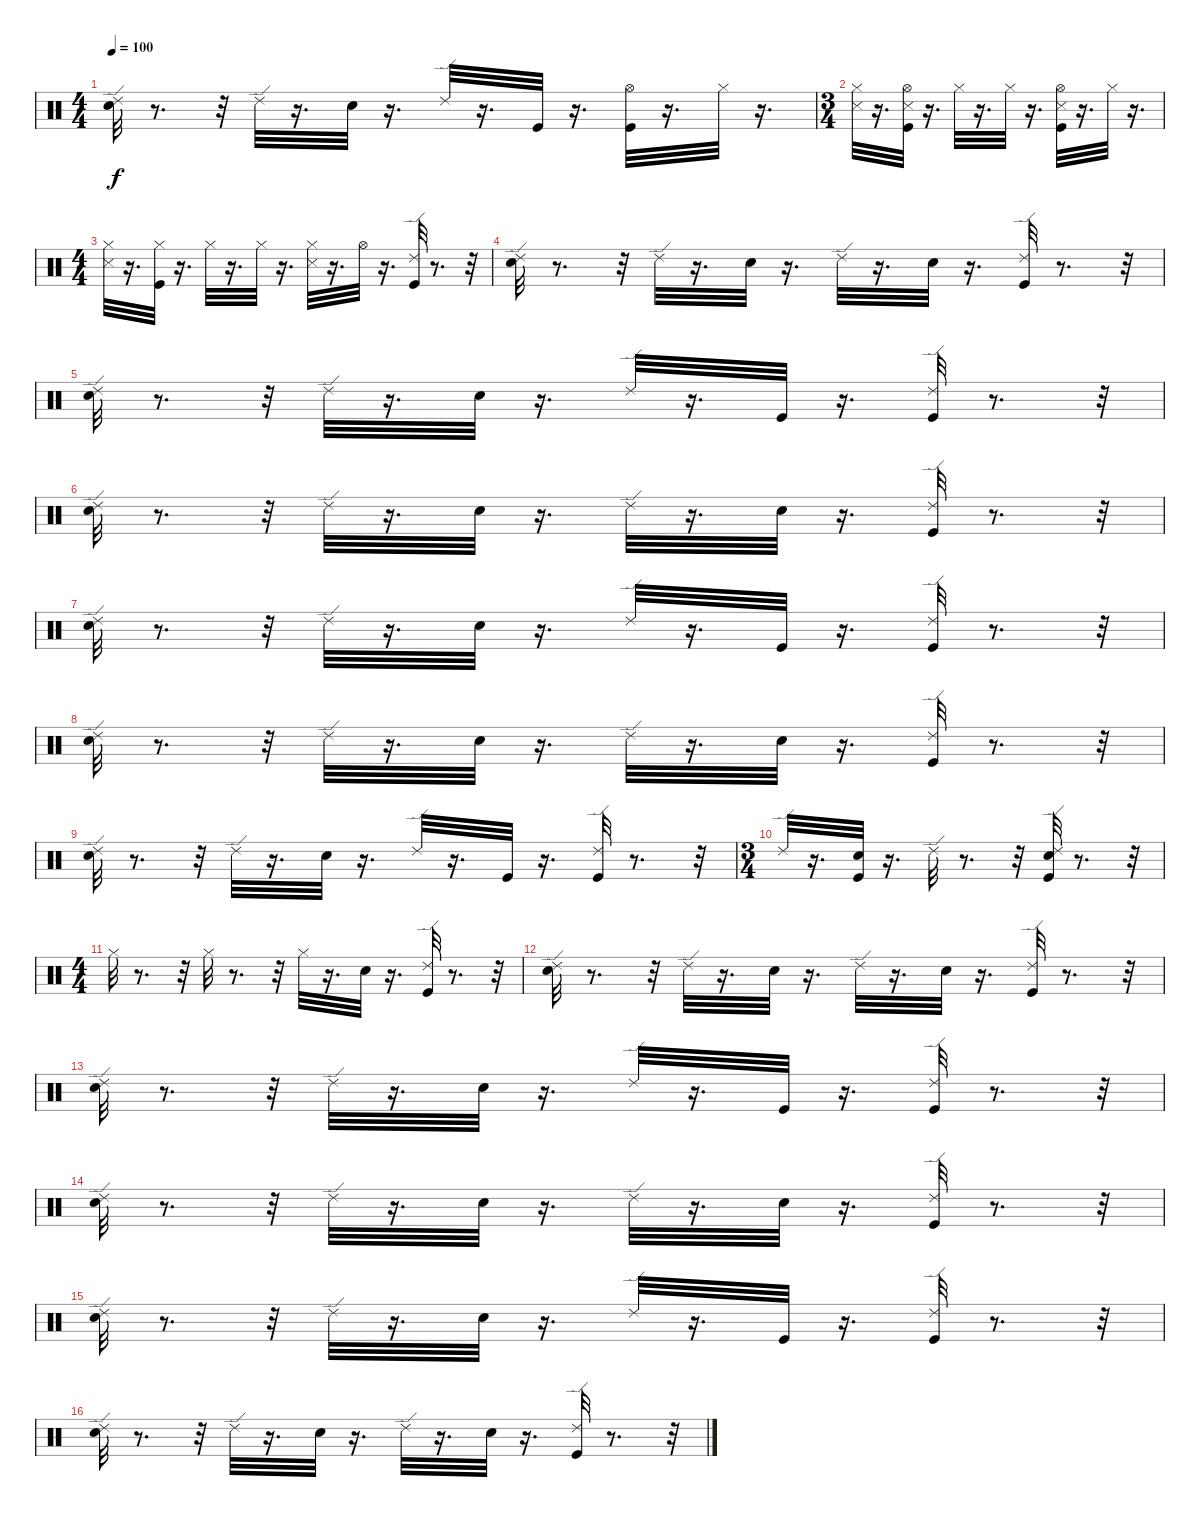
\track "" {instrument percussion}
\staff {score}
\articulation defaults
\ts (4 4)
\tempo 100
\clef neutral
\ks c
("Ride (edge) 2" "Snare (hit) 2").32{dy f} r.8{d} r.32 "Ride (edge) 2".32 r.16{d} "Snare (hit) 2".32 r.16{d} "Ride (edge) 2".32 r.16{d} "Kick (hit)".32 r.16{d} ("Kick (hit)" "Hi-Hat (open)").32 r.16{d} "Hi-Hat (closed)".32 r.16{d} |
\ts (3 4)
("Snare (side stick) 3" "Hi-Hat (closed)").32 r.16{d} ("Snare (side stick) 3" "Kick (hit)" "Hi-Hat (open)").32 r.16{d} "Hi-Hat (closed)".32 r.16{d} "Hi-Hat (closed)".32 r.16{d} ("Snare (side stick) 3" "Kick (hit)" "Hi-Hat (open)").32 r.16{d} "Hi-Hat (closed)".32 r.16{d} |
\ts (4 4)
("Snare (side stick) 3" "Hi-Hat (closed)").32 r.16{d} ("Kick (hit)" "Hi-Hat (closed)").32 r.16{d} "Hi-Hat (closed)".32 r.16{d} "Hi-Hat (closed)".32 r.16{d} ("Snare (side stick) 3" "Hi-Hat (closed)").32 r.16{d} "Hi-Hat (open)".32 r.16{d} ("Ride (edge) 2" "Kick (hit)").32 r.8{d} r.32 |
("Snare (hit) 2" "Ride (edge) 2").32 r.8{d} r.32 "Ride (edge) 2".32 r.16{d} "Snare (hit) 2".32 r.16{d} "Ride (edge) 2".32 r.16{d} "Snare (hit) 2".32 r.16{d} ("Kick (hit)" "Ride (edge) 2").32 r.8{d} r.32 |
("Ride (edge) 2" "Snare (hit) 2").32 r.8{d} r.32 "Ride (edge) 2".32 r.16{d} "Snare (hit) 2".32 r.16{d} "Ride (edge) 2".32 r.16{d} "Kick (hit)".32 r.16{d} ("Kick (hit)" "Ride (edge) 2").32 r.8{d} r.32 |
("Ride (edge) 2" "Snare (hit) 2").32 r.8{d} r.32 "Ride (edge) 2".32 r.16{d} "Snare (hit) 2".32 r.16{d} "Ride (edge) 2".32 r.16{d} "Snare (hit) 2".32 r.16{d} ("Ride (edge) 2" "Kick (hit)").32 r.8{d} r.32 |
("Snare (hit) 2" "Ride (edge) 2").32 r.8{d} r.32 "Ride (edge) 2".32 r.16{d} "Snare (hit) 2".32 r.16{d} "Ride (edge) 2".32 r.16{d} "Kick (hit)".32 r.16{d} ("Ride (edge) 2" "Kick (hit)").32 r.8{d} r.32 |
("Snare (hit) 2" "Ride (edge) 2").32 r.8{d} r.32 "Ride (edge) 2".32 r.16{d} "Snare (hit) 2".32 r.16{d} "Ride (edge) 2".32 r.16{d} "Snare (hit) 2".32 r.16{d} ("Kick (hit)" "Ride (edge) 2").32 r.8{d} r.32 |
("Ride (edge) 2" "Snare (hit) 2").32 r.8{d} r.32 "Ride (edge) 2".32 r.16{d} "Snare (hit) 2".32 r.16{d} "Ride (edge) 2".32 r.16{d} "Kick (hit)".32 r.16{d} ("Ride (edge) 2" "Kick (hit)").32 r.8{d} r.32 |
\ts (3 4)
"Ride (edge) 2".32 r.16{d} ("Kick (hit)" "Snare (hit) 2").32 r.16{d} "Ride (edge) 2".32 r.8{d} r.32 ("Snare (hit) 2" "Kick (hit)" "Ride (edge) 2").32 r.8{d} r.32 |
\ts (4 4)
"Hi-Hat (closed)".32 r.8{d} r.32 "Hi-Hat (closed)".32 r.8{d} r.32 "Hi-Hat (closed)".32 r.16{d} "Snare (hit) 2".32 r.16{d} ("Ride (edge) 2" "Kick (hit)").32 r.8{d} r.32 |
("Ride (edge) 2" "Snare (hit) 2").32 r.8{d} r.32 "Ride (edge) 2".32 r.16{d} "Snare (hit) 2".32 r.16{d} "Ride (edge) 2".32 r.16{d} "Snare (hit) 2".32 r.16{d} ("Ride (edge) 2" "Kick (hit)").32 r.8{d} r.32 |
("Snare (hit) 2" "Ride (edge) 2").32 r.8{d} r.32 "Ride (edge) 2".32 r.16{d} "Snare (hit) 2".32 r.16{d} "Ride (edge) 2".32 r.16{d} "Kick (hit)".32 r.16{d} ("Ride (edge) 2" "Kick (hit)").32 r.8{d} r.32 |
("Ride (edge) 2" "Snare (hit) 2").32 r.8{d} r.32 "Ride (edge) 2".32 r.16{d} "Snare (hit) 2".32 r.16{d} "Ride (edge) 2".32 r.16{d} "Snare (hit) 2".32 r.16{d} ("Ride (edge) 2" "Kick (hit)").32 r.8{d} r.32 |
("Snare (hit) 2" "Ride (edge) 2").32 r.8{d} r.32 "Ride (edge) 2".32 r.16{d} "Snare (hit) 2".32 r.16{d} "Ride (edge) 2".32 r.16{d} "Kick (hit)".32 r.16{d} ("Ride (edge) 2" "Kick (hit)").32 r.8{d} r.32 |
("Snare (hit) 2" "Ride (edge) 2").32 r.8{d} r.32 "Ride (edge) 2".32 r.16{d} "Snare (hit) 2".32 r.16{d} "Ride (edge) 2".32 r.16{d} "Snare (hit) 2".32 r.16{d} ("Kick (hit)" "Ride (edge) 2").32 r.8{d} r.32
